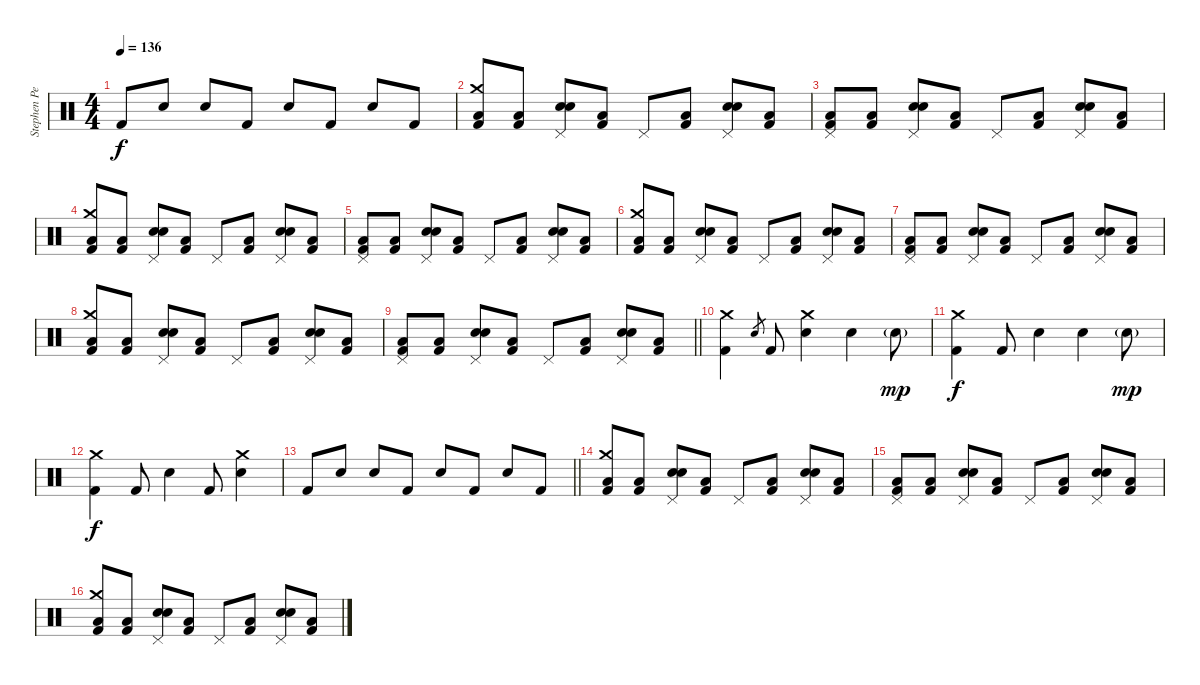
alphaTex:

\track ("Stephen Perkins (Drums)" "Stephen Pe") {instrument percussion}
\staff {score}
\articulation defaults
\ts (4 4)
\tempo 136
\clef neutral
\ks c "Kick (hit) 2".8{dy f} "Electric Snare (hit)".8 "Electric Snare (hit)".8 "Kick (hit) 2".8 "Electric Snare (hit)".8 "Kick (hit) 2".8 "Electric Snare (hit)".8 "Kick (hit) 2".8
|
("Crash medium (hit)" "Low Floor Tom (hit)" "Kick (hit) 2").8 ("Low Floor Tom (hit)" "Kick (hit) 2").8 ("Pedal Hi-Hat (hit)" "Electric Snare (hit)" "Snare (hit) 2").8 ("Low Floor Tom (hit)" "Kick (hit) 2").8 "Pedal Hi-Hat (hit)".8 ("Low Floor Tom (hit)" "Kick (hit) 2").8 ("Pedal Hi-Hat (hit)" "Electric Snare (hit)" "Snare (hit) 2").8 ("Low Tom (hit)" "Kick (hit) 2").8 |
("Pedal Hi-Hat (hit)" "Low Floor Tom (hit)" "Kick (hit) 2").8 ("Low Floor Tom (hit)" "Kick (hit) 2").8 ("Pedal Hi-Hat (hit)" "Electric Snare (hit)" "Snare (hit) 2").8 ("Low Floor Tom (hit)" "Kick (hit) 2").8 "Pedal Hi-Hat (hit)".8 ("Low Floor Tom (hit)" "Kick (hit) 2").8 ("Pedal Hi-Hat (hit)" "Electric Snare (hit)" "Snare (hit) 2").8 ("Low Tom (hit)" "Kick (hit) 2").8 |
("Crash medium (hit)" "Low Floor Tom (hit)" "Kick (hit) 2").8 ("Low Floor Tom (hit)" "Kick (hit) 2").8 ("Pedal Hi-Hat (hit)" "Electric Snare (hit)" "Snare (hit) 2").8 ("Low Floor Tom (hit)" "Kick (hit) 2").8 "Pedal Hi-Hat (hit)".8 ("Low Floor Tom (hit)" "Kick (hit) 2").8 ("Pedal Hi-Hat (hit)" "Electric Snare (hit)" "Snare (hit) 2").8 ("Low Tom (hit)" "Kick (hit) 2").8 |
("Pedal Hi-Hat (hit)" "Low Floor Tom (hit)" "Kick (hit) 2").8 ("Low Floor Tom (hit)" "Kick (hit) 2").8 ("Pedal Hi-Hat (hit)" "Electric Snare (hit)" "Snare (hit) 2").8 ("Low Floor Tom (hit)" "Kick (hit) 2").8 "Pedal Hi-Hat (hit)".8 ("Low Floor Tom (hit)" "Kick (hit) 2").8 ("Pedal Hi-Hat (hit)" "Electric Snare (hit)" "Snare (hit) 2").8 ("Low Tom (hit)" "Kick (hit) 2").8 |
("Crash medium (hit)" "Low Floor Tom (hit)" "Kick (hit) 2").8 ("Low Floor Tom (hit)" "Kick (hit) 2").8 ("Pedal Hi-Hat (hit)" "Electric Snare (hit)" "Snare (hit) 2").8 ("Low Floor Tom (hit)" "Kick (hit) 2").8 "Pedal Hi-Hat (hit)".8 ("Low Floor Tom (hit)" "Kick (hit) 2").8 ("Pedal Hi-Hat (hit)" "Electric Snare (hit)" "Snare (hit) 2").8 ("Low Tom (hit)" "Kick (hit) 2").8 |
("Pedal Hi-Hat (hit)" "Low Floor Tom (hit)" "Kick (hit) 2").8 ("Low Floor Tom (hit)" "Kick (hit) 2").8 ("Pedal Hi-Hat (hit)" "Electric Snare (hit)" "Snare (hit) 2").8 ("Low Floor Tom (hit)" "Kick (hit) 2").8 "Pedal Hi-Hat (hit)".8 ("Low Floor Tom (hit)" "Kick (hit) 2").8 ("Pedal Hi-Hat (hit)" "Electric Snare (hit)" "Snare (hit) 2").8 ("Low Tom (hit)" "Kick (hit) 2").8 |
("Crash medium (hit)" "Low Floor Tom (hit)" "Kick (hit) 2").8 ("Low Floor Tom (hit)" "Kick (hit) 2").8 ("Pedal Hi-Hat (hit)" "Electric Snare (hit)" "Snare (hit) 2").8 ("Low Floor Tom (hit)" "Kick (hit) 2").8 "Pedal Hi-Hat (hit)".8 ("Low Floor Tom (hit)" "Kick (hit) 2").8 ("Pedal Hi-Hat (hit)" "Electric Snare (hit)" "Snare (hit) 2").8 ("Low Tom (hit)" "Kick (hit) 2").8 |
\barLineRight lightlight
("Pedal Hi-Hat (hit)" "Low Floor Tom (hit)" "Kick (hit) 2").8 ("Low Floor Tom (hit)" "Kick (hit) 2").8 ("Pedal Hi-Hat (hit)" "Electric Snare (hit)" "Snare (hit) 2").8 ("Low Floor Tom (hit)" "Kick (hit) 2").8 "Pedal Hi-Hat (hit)".8 ("Low Floor Tom (hit)" "Kick (hit) 2").8 ("Pedal Hi-Hat (hit)" "Electric Snare (hit)" "Snare (hit) 2").8 ("Low Tom (hit)" "Kick (hit) 2").8 |
("Crash medium (hit)" "Kick (hit) 2").4 "Electric Snare (hit)".8{gr} "Kick (hit) 2".8 ("Crash medium (hit)" "Electric Snare (hit)").4 "Electric Snare (hit)".4 "Electric Snare (hit)"{g}.8{dy mp} |
("Crash medium (hit)" "Kick (hit) 2").4{dy f} "Kick (hit) 2".8 "Electric Snare (hit)".4 "Electric Snare (hit)".4 "Electric Snare (hit)"{g}.8{dy mp} |
("Crash medium (hit)" "Kick (hit) 2").4{dy f} "Kick (hit) 2".8 "Electric Snare (hit)".4 "Kick (hit) 2".8 ("Crash medium (hit)" "Electric Snare (hit)").4 |
\barLineRight lightlight "Kick (hit) 2".8 "Electric Snare (hit)".8 "Electric Snare (hit)".8 "Kick (hit) 2".8 "Electric Snare (hit)".8 "Kick (hit) 2".8 "Electric Snare (hit)".8 "Kick (hit) 2".8
|
("Crash medium (hit)" "Low Floor Tom (hit)" "Kick (hit) 2").8 ("Low Floor Tom (hit)" "Kick (hit) 2").8 ("Pedal Hi-Hat (hit)" "Electric Snare (hit)" "Snare (hit) 2").8 ("Low Floor Tom (hit)" "Kick (hit) 2").8 "Pedal Hi-Hat (hit)".8 ("Low Floor Tom (hit)" "Kick (hit) 2").8 ("Pedal Hi-Hat (hit)" "Electric Snare (hit)" "Snare (hit) 2").8 ("Low Tom (hit)" "Kick (hit) 2").8 |
("Pedal Hi-Hat (hit)" "Low Floor Tom (hit)" "Kick (hit) 2").8 ("Low Floor Tom (hit)" "Kick (hit) 2").8 ("Pedal Hi-Hat (hit)" "Electric Snare (hit)" "Snare (hit) 2").8 ("Low Floor Tom (hit)" "Kick (hit) 2").8 "Pedal Hi-Hat (hit)".8 ("Low Floor Tom (hit)" "Kick (hit) 2").8 ("Pedal Hi-Hat (hit)" "Electric Snare (hit)" "Snare (hit) 2").8 ("Low Tom (hit)" "Kick (hit) 2").8 |
("Crash medium (hit)" "Low Floor Tom (hit)" "Kick (hit) 2").8 ("Low Floor Tom (hit)" "Kick (hit) 2").8 ("Pedal Hi-Hat (hit)" "Electric Snare (hit)" "Snare (hit) 2").8 ("Low Floor Tom (hit)" "Kick (hit) 2").8 "Pedal Hi-Hat (hit)".8 ("Low Floor Tom (hit)" "Kick (hit) 2").8 ("Pedal Hi-Hat (hit)" "Electric Snare (hit)" "Snare (hit) 2").8 ("Low Tom (hit)" "Kick (hit) 2").8
